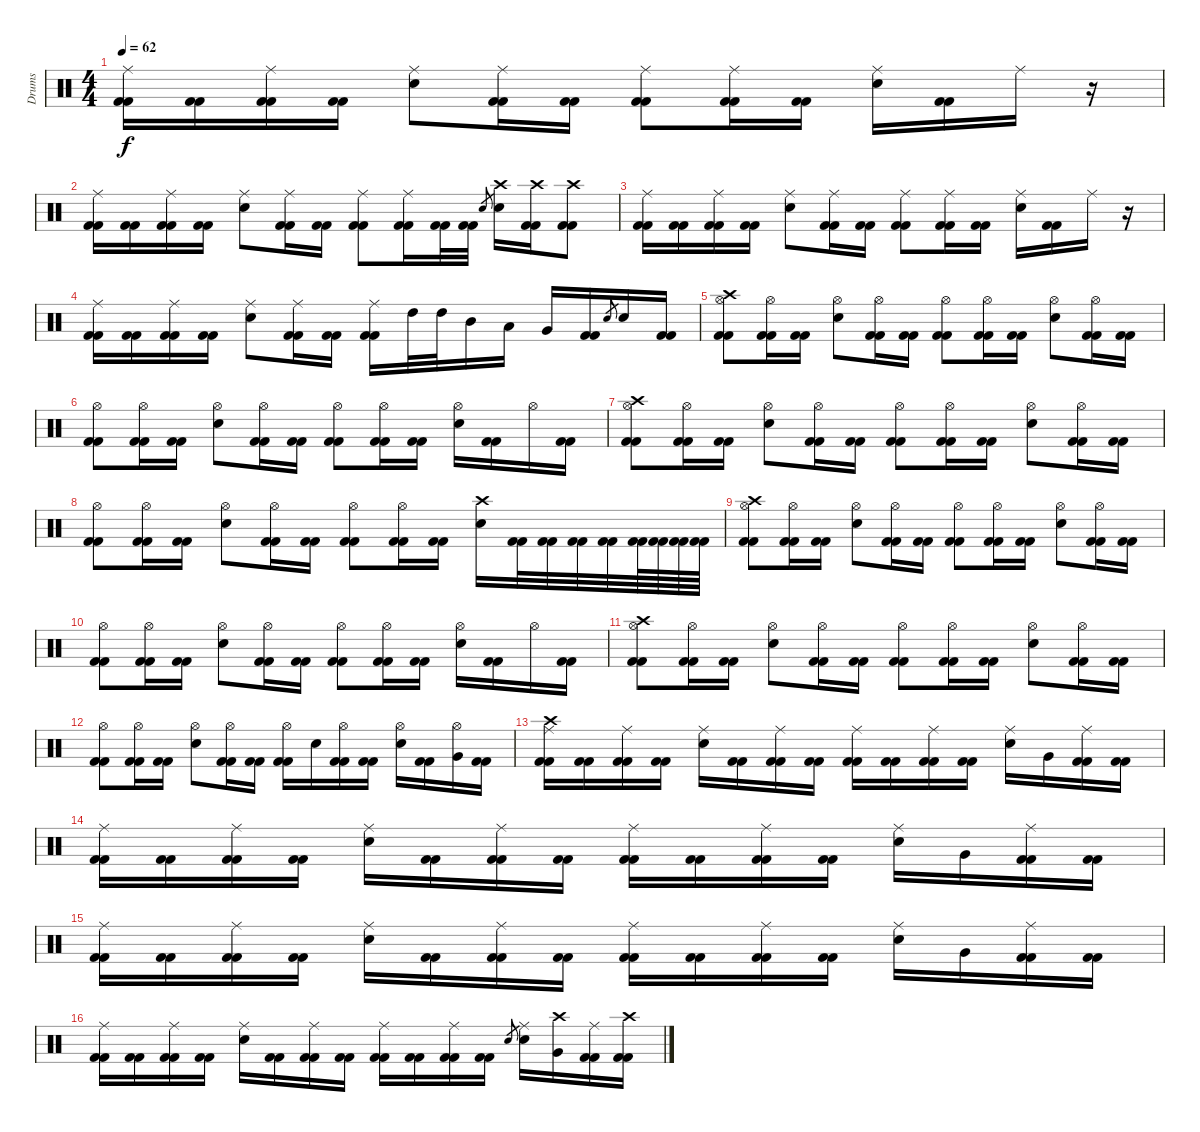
\track ("Drums" "Drums") {instrument percussion}
\staff {score}
\articulation defaults
\ts (4 4)
\tempo 62
\clef neutral
\ks c
("Kick (hit) 2" "Kick (hit) 2" "Ride (middle)").16{dy f} ("Kick (hit) 2" "Kick (hit) 2").16 ("Kick (hit) 2" "Kick (hit) 2" "Ride (middle)").16 ("Kick (hit) 2" "Kick (hit) 2").16 ("Electric Snare (hit)" "Ride (middle)").8 ("Kick (hit) 2" "Kick (hit) 2" "Ride (middle)").16 ("Kick (hit) 2" "Kick (hit) 2").16 ("Kick (hit) 2" "Kick (hit) 2" "Ride (middle)").8 ("Kick (hit) 2" "Kick (hit) 2" "Ride (middle)").16 ("Kick (hit) 2" "Kick (hit) 2").16 ("Electric Snare (hit)" "Ride (middle)").16 ("Kick (hit) 2" "Kick (hit) 2").16 "Ride (middle)".16 r.16 |
("Kick (hit) 2" "Kick (hit) 2" "Ride (middle)").16 ("Kick (hit) 2" "Kick (hit) 2").16 ("Kick (hit) 2" "Kick (hit) 2" "Ride (middle)").16 ("Kick (hit) 2" "Kick (hit) 2").16 ("Electric Snare (hit)" "Ride (middle)").8 ("Kick (hit) 2" "Kick (hit) 2" "Ride (middle)").16 ("Kick (hit) 2" "Kick (hit) 2").16 ("Kick (hit) 2" "Kick (hit) 2" "Ride (middle)").8 ("Kick (hit) 2" "Kick (hit) 2" "Ride (middle)").16 ("Kick (hit) 2" "Kick (hit) 2").32 ("Kick (hit) 2" "Kick (hit) 2").32 "Electric Snare (hit)".8{gr} ("Electric Snare (hit)" "Crash high (hit)").16 ("Kick (hit) 2" "Kick (hit) 2" "Crash high (hit)").16 ("Kick (hit) 2" "Kick (hit) 2" "Crash high (hit)").8 |
("Kick (hit) 2" "Kick (hit) 2" "Ride (middle)").16 ("Kick (hit) 2" "Kick (hit) 2").16 ("Kick (hit) 2" "Kick (hit) 2" "Ride (middle)").16 ("Kick (hit) 2" "Kick (hit) 2").16 ("Electric Snare (hit)" "Ride (middle)").8 ("Kick (hit) 2" "Kick (hit) 2" "Ride (middle)").16 ("Kick (hit) 2" "Kick (hit) 2").16 ("Kick (hit) 2" "Kick (hit) 2" "Ride (middle)").8 ("Kick (hit) 2" "Kick (hit) 2" "Ride (middle)").16 ("Kick (hit) 2" "Kick (hit) 2").16 ("Electric Snare (hit)" "Ride (middle)").16 ("Kick (hit) 2" "Kick (hit) 2").16 "Ride (middle)".16 r.16 |
("Kick (hit) 2" "Kick (hit) 2" "Ride (middle)").16 ("Kick (hit) 2" "Kick (hit) 2").16 ("Kick (hit) 2" "Kick (hit) 2" "Ride (middle)").16 ("Kick (hit) 2" "Kick (hit) 2").16 ("Electric Snare (hit)" "Ride (middle)").8 ("Kick (hit) 2" "Kick (hit) 2" "Ride (middle)").16 ("Kick (hit) 2" "Kick (hit) 2").16 ("Kick (hit) 2" "Kick (hit) 2" "Ride (middle)").16 "High Tom (hit)".32 "High Tom (hit)".32 "Mid Tom (hit)".16 "Low Tom (hit)".16 "Very Low Tom (hit)".16 ("Kick (hit) 2" "Kick (hit) 2").16 "Electric Snare (hit)".8{gr} "Electric Snare (hit)".16 ("Kick (hit) 2" "Kick (hit) 2").16 |
("Kick (hit) 2" "Kick (hit) 2" "Hi-Hat (open)" "Crash high (hit)").8 ("Kick (hit) 2" "Kick (hit) 2" "Hi-Hat (open)").16 ("Kick (hit) 2" "Kick (hit) 2").16 ("Electric Snare (hit)" "Hi-Hat (open)").8 ("Kick (hit) 2" "Kick (hit) 2" "Hi-Hat (open)").16 ("Kick (hit) 2" "Kick (hit) 2").16 ("Kick (hit) 2" "Kick (hit) 2" "Hi-Hat (open)").8 ("Kick (hit) 2" "Kick (hit) 2" "Hi-Hat (open)").16 ("Kick (hit) 2" "Kick (hit) 2").16 ("Electric Snare (hit)" "Hi-Hat (open)").8 ("Kick (hit) 2" "Kick (hit) 2" "Hi-Hat (open)").16 ("Kick (hit) 2" "Kick (hit) 2").16 |
("Kick (hit) 2" "Kick (hit) 2" "Hi-Hat (open)").8 ("Kick (hit) 2" "Kick (hit) 2" "Hi-Hat (open)").16 ("Kick (hit) 2" "Kick (hit) 2").16 ("Electric Snare (hit)" "Hi-Hat (open)").8 ("Kick (hit) 2" "Kick (hit) 2" "Hi-Hat (open)").16 ("Kick (hit) 2" "Kick (hit) 2").16 ("Kick (hit) 2" "Kick (hit) 2" "Hi-Hat (open)").8 ("Kick (hit) 2" "Kick (hit) 2" "Hi-Hat (open)").16 ("Kick (hit) 2" "Kick (hit) 2").16 ("Electric Snare (hit)" "Hi-Hat (open)").16 ("Kick (hit) 2" "Kick (hit) 2").16 "Hi-Hat (open)".16 ("Kick (hit) 2" "Kick (hit) 2").16 |
("Kick (hit) 2" "Kick (hit) 2" "Hi-Hat (open)" "Crash high (hit)").8 ("Kick (hit) 2" "Kick (hit) 2" "Hi-Hat (open)").16 ("Kick (hit) 2" "Kick (hit) 2").16 ("Electric Snare (hit)" "Hi-Hat (open)").8 ("Kick (hit) 2" "Kick (hit) 2" "Hi-Hat (open)").16 ("Kick (hit) 2" "Kick (hit) 2").16 ("Kick (hit) 2" "Kick (hit) 2" "Hi-Hat (open)").8 ("Kick (hit) 2" "Kick (hit) 2" "Hi-Hat (open)").16 ("Kick (hit) 2" "Kick (hit) 2").16 ("Electric Snare (hit)" "Hi-Hat (open)").8 ("Kick (hit) 2" "Kick (hit) 2" "Hi-Hat (open)").16 ("Kick (hit) 2" "Kick (hit) 2").16 |
("Kick (hit) 2" "Kick (hit) 2" "Hi-Hat (open)").8 ("Kick (hit) 2" "Kick (hit) 2" "Hi-Hat (open)").16 ("Kick (hit) 2" "Kick (hit) 2").16 ("Electric Snare (hit)" "Hi-Hat (open)").8 ("Kick (hit) 2" "Kick (hit) 2" "Hi-Hat (open)").16 ("Kick (hit) 2" "Kick (hit) 2").16 ("Kick (hit) 2" "Kick (hit) 2" "Hi-Hat (open)").8 ("Kick (hit) 2" "Kick (hit) 2" "Hi-Hat (open)").16 ("Kick (hit) 2" "Kick (hit) 2").16 ("Electric Snare (hit)" "Crash high (hit)").16 ("Kick (hit) 2" "Kick (hit) 2").32 ("Kick (hit) 2" "Kick (hit) 2").32 ("Kick (hit) 2" "Kick (hit) 2").32 ("Kick (hit) 2" "Kick (hit) 2").32 ("Kick (hit) 2" "Kick (hit) 2").64 ("Kick (hit) 2" "Kick (hit) 2").64 ("Kick (hit) 2" "Kick (hit) 2").64 ("Kick (hit) 2" "Kick (hit) 2").64 |
("Kick (hit) 2" "Kick (hit) 2" "Hi-Hat (open)" "Crash high (hit)").8 ("Kick (hit) 2" "Kick (hit) 2" "Hi-Hat (open)").16 ("Kick (hit) 2" "Kick (hit) 2").16 ("Electric Snare (hit)" "Hi-Hat (open)").8 ("Kick (hit) 2" "Kick (hit) 2" "Hi-Hat (open)").16 ("Kick (hit) 2" "Kick (hit) 2").16 ("Kick (hit) 2" "Kick (hit) 2" "Hi-Hat (open)").8 ("Kick (hit) 2" "Kick (hit) 2" "Hi-Hat (open)").16 ("Kick (hit) 2" "Kick (hit) 2").16 ("Electric Snare (hit)" "Hi-Hat (open)").8 ("Kick (hit) 2" "Kick (hit) 2" "Hi-Hat (open)").16 ("Kick (hit) 2" "Kick (hit) 2").16 |
("Kick (hit) 2" "Kick (hit) 2" "Hi-Hat (open)").8 ("Kick (hit) 2" "Kick (hit) 2" "Hi-Hat (open)").16 ("Kick (hit) 2" "Kick (hit) 2").16 ("Electric Snare (hit)" "Hi-Hat (open)").8 ("Kick (hit) 2" "Kick (hit) 2" "Hi-Hat (open)").16 ("Kick (hit) 2" "Kick (hit) 2").16 ("Kick (hit) 2" "Kick (hit) 2" "Hi-Hat (open)").8 ("Kick (hit) 2" "Kick (hit) 2" "Hi-Hat (open)").16 ("Kick (hit) 2" "Kick (hit) 2").16 ("Electric Snare (hit)" "Hi-Hat (open)").16 ("Kick (hit) 2" "Kick (hit) 2").16 "Hi-Hat (open)".16 ("Kick (hit) 2" "Kick (hit) 2").16 |
("Kick (hit) 2" "Kick (hit) 2" "Hi-Hat (open)" "Crash high (hit)").8 ("Kick (hit) 2" "Kick (hit) 2" "Hi-Hat (open)").16 ("Kick (hit) 2" "Kick (hit) 2").16 ("Electric Snare (hit)" "Hi-Hat (open)").8 ("Kick (hit) 2" "Kick (hit) 2" "Hi-Hat (open)").16 ("Kick (hit) 2" "Kick (hit) 2").16 ("Kick (hit) 2" "Kick (hit) 2" "Hi-Hat (open)").8 ("Kick (hit) 2" "Kick (hit) 2" "Hi-Hat (open)").16 ("Kick (hit) 2" "Kick (hit) 2").16 ("Electric Snare (hit)" "Hi-Hat (open)").8 ("Kick (hit) 2" "Kick (hit) 2" "Hi-Hat (open)").16 ("Kick (hit) 2" "Kick (hit) 2").16 |
("Kick (hit) 2" "Kick (hit) 2" "Hi-Hat (open)").8 ("Kick (hit) 2" "Kick (hit) 2" "Hi-Hat (open)").16 ("Kick (hit) 2" "Kick (hit) 2").16 ("Electric Snare (hit)" "Hi-Hat (open)").8 ("Kick (hit) 2" "Kick (hit) 2" "Hi-Hat (open)").16 ("Kick (hit) 2" "Kick (hit) 2").16 ("Kick (hit) 2" "Kick (hit) 2" "Hi-Hat (open)").16 "Electric Snare (hit)".16 ("Kick (hit) 2" "Kick (hit) 2" "Hi-Hat (open)").16 ("Kick (hit) 2" "Kick (hit) 2").16 ("Electric Snare (hit)" "Hi-Hat (open)").16 ("Kick (hit) 2" "Kick (hit) 2").16 ("Very Low Tom (hit)" "Hi-Hat (open)").16 ("Kick (hit) 2" "Kick (hit) 2").16 |
("Kick (hit) 2" "Kick (hit) 2" "Ride (middle)" "Crash high (hit)").16 ("Kick (hit) 2" "Kick (hit) 2").16 ("Kick (hit) 2" "Kick (hit) 2" "Ride (middle)").16 ("Kick (hit) 2" "Kick (hit) 2").16 ("Electric Snare (hit)" "Ride (middle)").16 ("Kick (hit) 2" "Kick (hit) 2").16 ("Kick (hit) 2" "Kick (hit) 2" "Ride (middle)").16 ("Kick (hit) 2" "Kick (hit) 2").16 ("Kick (hit) 2" "Kick (hit) 2" "Ride (middle)").16 ("Kick (hit) 2" "Kick (hit) 2").16 ("Kick (hit) 2" "Kick (hit) 2" "Ride (middle)").16 ("Kick (hit) 2" "Kick (hit) 2").16 ("Electric Snare (hit)" "Ride (middle)").16 "Very Low Tom (hit)".16 ("Kick (hit) 2" "Kick (hit) 2" "Ride (middle)").16 ("Kick (hit) 2" "Kick (hit) 2").16 |
("Kick (hit) 2" "Kick (hit) 2" "Ride (middle)").16 ("Kick (hit) 2" "Kick (hit) 2").16 ("Kick (hit) 2" "Kick (hit) 2" "Ride (middle)").16 ("Kick (hit) 2" "Kick (hit) 2").16 ("Electric Snare (hit)" "Ride (middle)").16 ("Kick (hit) 2" "Kick (hit) 2").16 ("Kick (hit) 2" "Kick (hit) 2" "Ride (middle)").16 ("Kick (hit) 2" "Kick (hit) 2").16 ("Kick (hit) 2" "Kick (hit) 2" "Ride (middle)").16 ("Kick (hit) 2" "Kick (hit) 2").16 ("Kick (hit) 2" "Kick (hit) 2" "Ride (middle)").16 ("Kick (hit) 2" "Kick (hit) 2").16 ("Electric Snare (hit)" "Ride (middle)").16 "Very Low Tom (hit)".16 ("Kick (hit) 2" "Kick (hit) 2" "Ride (middle)").16 ("Kick (hit) 2" "Kick (hit) 2").16 |
("Kick (hit) 2" "Kick (hit) 2" "Ride (middle)").16 ("Kick (hit) 2" "Kick (hit) 2").16 ("Kick (hit) 2" "Kick (hit) 2" "Ride (middle)").16 ("Kick (hit) 2" "Kick (hit) 2").16 ("Electric Snare (hit)" "Ride (middle)").16 ("Kick (hit) 2" "Kick (hit) 2").16 ("Kick (hit) 2" "Kick (hit) 2" "Ride (middle)").16 ("Kick (hit) 2" "Kick (hit) 2").16 ("Kick (hit) 2" "Kick (hit) 2" "Ride (middle)").16 ("Kick (hit) 2" "Kick (hit) 2").16 ("Kick (hit) 2" "Kick (hit) 2" "Ride (middle)").16 ("Kick (hit) 2" "Kick (hit) 2").16 ("Electric Snare (hit)" "Ride (middle)").16 "Very Low Tom (hit)".16 ("Kick (hit) 2" "Kick (hit) 2" "Ride (middle)").16 ("Kick (hit) 2" "Kick (hit) 2").16 |
("Kick (hit) 2" "Kick (hit) 2" "Ride (middle)").16 ("Kick (hit) 2" "Kick (hit) 2").16 ("Kick (hit) 2" "Kick (hit) 2" "Ride (middle)").16 ("Kick (hit) 2" "Kick (hit) 2").16 ("Electric Snare (hit)" "Ride (middle)").16 ("Kick (hit) 2" "Kick (hit) 2").16 ("Kick (hit) 2" "Kick (hit) 2" "Ride (middle)").16 ("Kick (hit) 2" "Kick (hit) 2").16 ("Kick (hit) 2" "Kick (hit) 2" "Ride (middle)").16 ("Kick (hit) 2" "Kick (hit) 2").16 ("Kick (hit) 2" "Kick (hit) 2" "Ride (middle)").16 ("Kick (hit) 2" "Kick (hit) 2").16 "Electric Snare (hit)".8{gr} ("Electric Snare (hit)" "Ride (middle)").16 ("Very Low Tom (hit)" "Crash high (hit)").16 ("Kick (hit) 2" "Kick (hit) 2" "Ride (middle)").16 ("Kick (hit) 2" "Kick (hit) 2" "Crash high (hit)").16
